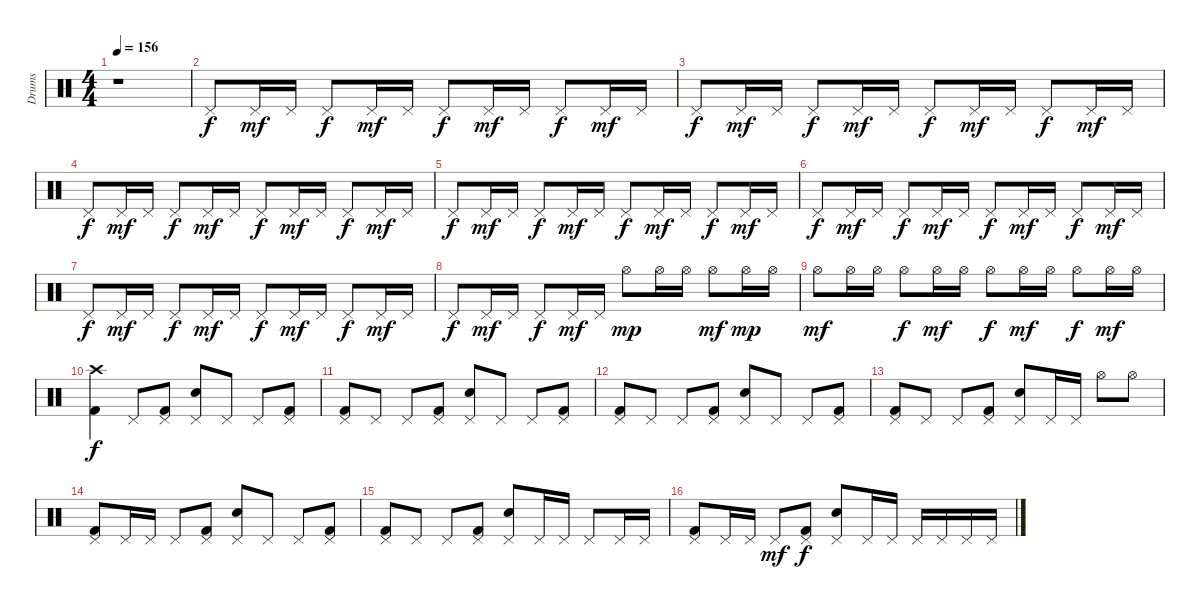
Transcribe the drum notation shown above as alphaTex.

\track ("Drums" "Drums") {instrument percussion}
\staff {score}
\articulation defaults
\ts (4 4)
\tempo 156
\clef neutral
\ks c
r.1{dy f} |
"Pedal Hi-Hat (hit)".8 "Pedal Hi-Hat (hit)".16{dy mf} "Pedal Hi-Hat (hit)".16 "Pedal Hi-Hat (hit)".8{dy f} "Pedal Hi-Hat (hit)".16{dy mf} "Pedal Hi-Hat (hit)".16 "Pedal Hi-Hat (hit)".8{dy f} "Pedal Hi-Hat (hit)".16{dy mf} "Pedal Hi-Hat (hit)".16 "Pedal Hi-Hat (hit)".8{dy f} "Pedal Hi-Hat (hit)".16{dy mf} "Pedal Hi-Hat (hit)".16 |
"Pedal Hi-Hat (hit)".8{dy f} "Pedal Hi-Hat (hit)".16{dy mf} "Pedal Hi-Hat (hit)".16 "Pedal Hi-Hat (hit)".8{dy f} "Pedal Hi-Hat (hit)".16{dy mf} "Pedal Hi-Hat (hit)".16 "Pedal Hi-Hat (hit)".8{dy f} "Pedal Hi-Hat (hit)".16{dy mf} "Pedal Hi-Hat (hit)".16 "Pedal Hi-Hat (hit)".8{dy f} "Pedal Hi-Hat (hit)".16{dy mf} "Pedal Hi-Hat (hit)".16 |
"Pedal Hi-Hat (hit)".8{dy f} "Pedal Hi-Hat (hit)".16{dy mf} "Pedal Hi-Hat (hit)".16 "Pedal Hi-Hat (hit)".8{dy f} "Pedal Hi-Hat (hit)".16{dy mf} "Pedal Hi-Hat (hit)".16 "Pedal Hi-Hat (hit)".8{dy f} "Pedal Hi-Hat (hit)".16{dy mf} "Pedal Hi-Hat (hit)".16 "Pedal Hi-Hat (hit)".8{dy f} "Pedal Hi-Hat (hit)".16{dy mf} "Pedal Hi-Hat (hit)".16 |
"Pedal Hi-Hat (hit)".8{dy f} "Pedal Hi-Hat (hit)".16{dy mf} "Pedal Hi-Hat (hit)".16 "Pedal Hi-Hat (hit)".8{dy f} "Pedal Hi-Hat (hit)".16{dy mf} "Pedal Hi-Hat (hit)".16 "Pedal Hi-Hat (hit)".8{dy f} "Pedal Hi-Hat (hit)".16{dy mf} "Pedal Hi-Hat (hit)".16 "Pedal Hi-Hat (hit)".8{dy f} "Pedal Hi-Hat (hit)".16{dy mf} "Pedal Hi-Hat (hit)".16 |
"Pedal Hi-Hat (hit)".8{dy f} "Pedal Hi-Hat (hit)".16{dy mf} "Pedal Hi-Hat (hit)".16 "Pedal Hi-Hat (hit)".8{dy f} "Pedal Hi-Hat (hit)".16{dy mf} "Pedal Hi-Hat (hit)".16 "Pedal Hi-Hat (hit)".8{dy f} "Pedal Hi-Hat (hit)".16{dy mf} "Pedal Hi-Hat (hit)".16 "Pedal Hi-Hat (hit)".8{dy f} "Pedal Hi-Hat (hit)".16{dy mf} "Pedal Hi-Hat (hit)".16 |
"Pedal Hi-Hat (hit)".8{dy f} "Pedal Hi-Hat (hit)".16{dy mf} "Pedal Hi-Hat (hit)".16 "Pedal Hi-Hat (hit)".8{dy f} "Pedal Hi-Hat (hit)".16{dy mf} "Pedal Hi-Hat (hit)".16 "Pedal Hi-Hat (hit)".8{dy f} "Pedal Hi-Hat (hit)".16{dy mf} "Pedal Hi-Hat (hit)".16 "Pedal Hi-Hat (hit)".8{dy f} "Pedal Hi-Hat (hit)".16{dy mf} "Pedal Hi-Hat (hit)".16 |
"Pedal Hi-Hat (hit)".8{dy f} "Pedal Hi-Hat (hit)".16{dy mf} "Pedal Hi-Hat (hit)".16 "Pedal Hi-Hat (hit)".8{dy f} "Pedal Hi-Hat (hit)".16{dy mf} "Pedal Hi-Hat (hit)".16 "Hi-Hat (open)".8{dy mp} "Hi-Hat (open)".16 "Hi-Hat (open)".16 "Hi-Hat (open)".8{dy mf} "Hi-Hat (open)".16{dy mp} "Hi-Hat (open)".16 |
"Hi-Hat (open)".8{dy mf} "Hi-Hat (open)".16 "Hi-Hat (open)".16 "Hi-Hat (open)".8{dy f} "Hi-Hat (open)".16{dy mf} "Hi-Hat (open)".16 "Hi-Hat (open)".8{dy f} "Hi-Hat (open)".16{dy mf} "Hi-Hat (open)".16 "Hi-Hat (open)".8{dy f} "Hi-Hat (open)".16{dy mf} "Hi-Hat (open)".16 |
("Crash high (hit)" "Kick (hit) 2").4{dy f} "Pedal Hi-Hat (hit)".8 ("Pedal Hi-Hat (hit)" "Kick (hit) 2").8 ("Pedal Hi-Hat (hit)" "Electric Snare (hit)").8 "Pedal Hi-Hat (hit)".8 "Pedal Hi-Hat (hit)".8 ("Pedal Hi-Hat (hit)" "Kick (hit) 2").8 |
("Pedal Hi-Hat (hit)" "Kick (hit) 2").8 "Pedal Hi-Hat (hit)".8 "Pedal Hi-Hat (hit)".8 ("Pedal Hi-Hat (hit)" "Kick (hit) 2").8 ("Pedal Hi-Hat (hit)" "Electric Snare (hit)").8 "Pedal Hi-Hat (hit)".8 "Pedal Hi-Hat (hit)".8 ("Pedal Hi-Hat (hit)" "Kick (hit) 2").8 |
("Pedal Hi-Hat (hit)" "Kick (hit) 2").8 "Pedal Hi-Hat (hit)".8 "Pedal Hi-Hat (hit)".8 ("Pedal Hi-Hat (hit)" "Kick (hit) 2").8 ("Pedal Hi-Hat (hit)" "Electric Snare (hit)").8 "Pedal Hi-Hat (hit)".8 "Pedal Hi-Hat (hit)".8 ("Pedal Hi-Hat (hit)" "Kick (hit) 2").8 |
("Pedal Hi-Hat (hit)" "Kick (hit) 2").8 "Pedal Hi-Hat (hit)".8 "Pedal Hi-Hat (hit)".8 ("Pedal Hi-Hat (hit)" "Kick (hit) 2").8 ("Pedal Hi-Hat (hit)" "Electric Snare (hit)").8 "Pedal Hi-Hat (hit)".16 "Pedal Hi-Hat (hit)".16 "Hi-Hat (open)".8 "Hi-Hat (open)".8 |
("Pedal Hi-Hat (hit)" "Kick (hit) 2").8 "Pedal Hi-Hat (hit)".16 "Pedal Hi-Hat (hit)".16 "Pedal Hi-Hat (hit)".8 ("Pedal Hi-Hat (hit)" "Kick (hit) 2").8 ("Pedal Hi-Hat (hit)" "Electric Snare (hit)").8 "Pedal Hi-Hat (hit)".8 "Pedal Hi-Hat (hit)".8 ("Pedal Hi-Hat (hit)" "Kick (hit) 2").8 |
("Pedal Hi-Hat (hit)" "Kick (hit) 2").8 "Pedal Hi-Hat (hit)".8 "Pedal Hi-Hat (hit)".8 ("Pedal Hi-Hat (hit)" "Kick (hit) 2").8 ("Pedal Hi-Hat (hit)" "Electric Snare (hit)").8 "Pedal Hi-Hat (hit)".16 "Pedal Hi-Hat (hit)".16 "Pedal Hi-Hat (hit)".8 "Pedal Hi-Hat (hit)".16 "Pedal Hi-Hat (hit)".16 |
("Pedal Hi-Hat (hit)" "Kick (hit) 2").8 "Pedal Hi-Hat (hit)".16 "Pedal Hi-Hat (hit)".16 "Pedal Hi-Hat (hit)".8{dy mf} ("Pedal Hi-Hat (hit)" "Kick (hit) 2").8{dy f} ("Pedal Hi-Hat (hit)" "Electric Snare (hit)").8 "Pedal Hi-Hat (hit)".16 "Pedal Hi-Hat (hit)".16 "Pedal Hi-Hat (hit)".16 "Pedal Hi-Hat (hit)".16 "Pedal Hi-Hat (hit)".16 "Pedal Hi-Hat (hit)".16
